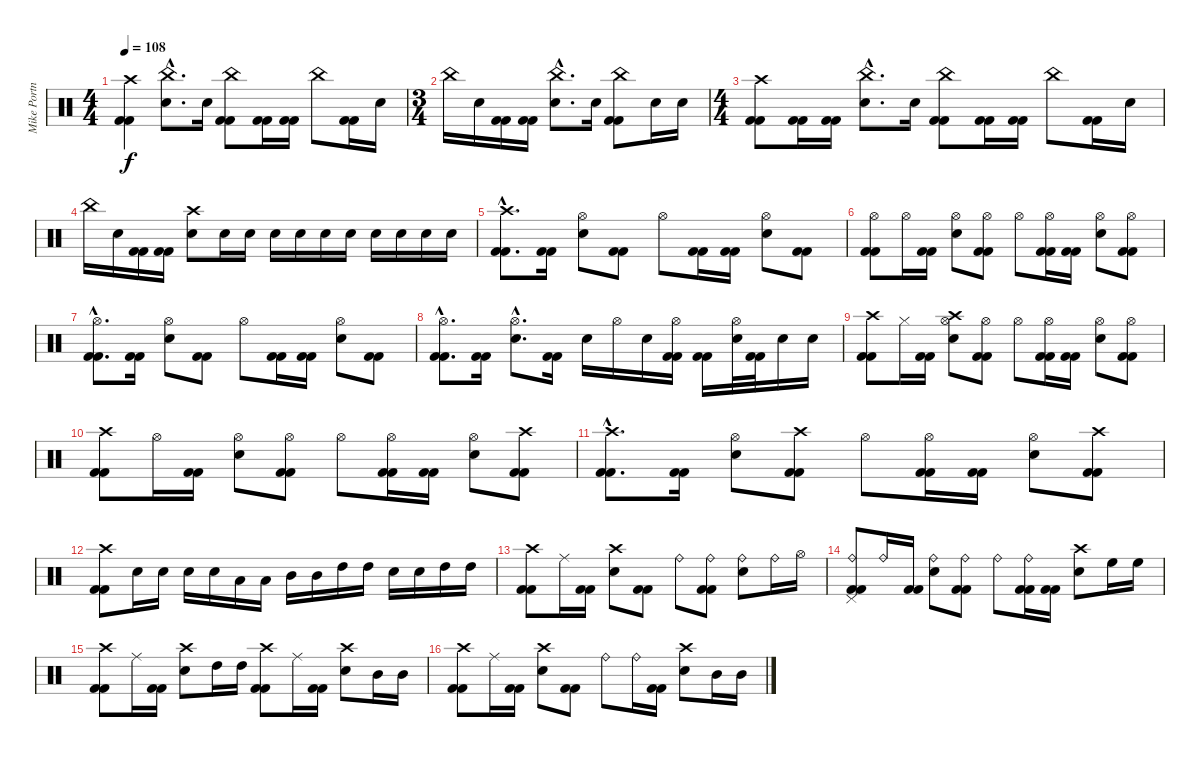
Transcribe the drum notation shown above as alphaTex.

\track ("Mike Portnoy - Drum" "Mike Portn") {instrument percussion}
\staff {score}
\articulation defaults
\ts (4 4)
\tempo 108
\clef neutral
\ks c
("Crash high (hit)" "Kick (hit) 2" "Kick (hit) 2").4{dy f} ("China (hit)"{hac} "Snare (hit) 2"{hac}).8{d} "Snare (hit) 2".16 ("China (hit)" "Kick (hit) 2" "Kick (hit) 2").8 ("Kick (hit) 2" "Kick (hit) 2").16 ("Kick (hit) 2" "Kick (hit) 2").16 "China (hit)".8 ("Kick (hit) 2" "Kick (hit) 2").16 "Snare (hit) 2".16 |
\ts (3 4)
"China (hit)".16 "Snare (hit) 2".16 ("Kick (hit) 2" "Kick (hit) 2").16 ("Kick (hit) 2" "Kick (hit) 2").16 ("China (hit)"{hac} "Snare (hit) 2"{hac}).8{d} "Snare (hit) 2".16 ("China (hit)" "Kick (hit) 2" "Kick (hit) 2").8 "Snare (hit) 2".16 "Snare (hit) 2".16 |
\ts (4 4)
("Crash high (hit)" "Kick (hit) 2" "Kick (hit) 2").8 ("Kick (hit) 2" "Kick (hit) 2").16 ("Kick (hit) 2" "Kick (hit) 2").16 ("China (hit)"{hac} "Snare (hit) 2"{hac}).8{d} "Snare (hit) 2".16 ("China (hit)" "Kick (hit) 2" "Kick (hit) 2").8 ("Kick (hit) 2" "Kick (hit) 2").16 ("Kick (hit) 2" "Kick (hit) 2").16 "China (hit)".8 ("Kick (hit) 2" "Kick (hit) 2").16 "Snare (hit) 2".16 |
"China (hit)".16 "Snare (hit) 2".16 ("Kick (hit) 2" "Kick (hit) 2").16 ("Kick (hit) 2" "Kick (hit) 2").16 ("Crash high (hit)" "Snare (hit) 2").8 "Snare (hit) 2".16 "Snare (hit) 2".16 "Snare (hit) 2".16 "Snare (hit) 2".16 "Snare (hit) 2".16 "Snare (hit) 2".16 "Snare (hit) 2".16 "Snare (hit) 2".16 "Snare (hit) 2".16 "Snare (hit) 2".16 |
("Crash high (hit)"{hac} "Kick (hit) 2"{hac} "Kick (hit) 2"{hac}).8{d} ("Kick (hit) 2" "Kick (hit) 2").16 ("Hi-Hat (open)" "Snare (hit) 2").8 ("Kick (hit) 2" "Kick (hit) 2").8 "Hi-Hat (open)".8 ("Kick (hit) 2" "Kick (hit) 2").16 ("Kick (hit) 2" "Kick (hit) 2").16 ("Hi-Hat (open)" "Snare (hit) 2").8 ("Kick (hit) 2" "Kick (hit) 2").8 |
("Hi-Hat (open)" "Kick (hit) 2" "Kick (hit) 2").8 "Hi-Hat (open)".16 ("Kick (hit) 2" "Kick (hit) 2").16 ("Hi-Hat (open)" "Snare (hit) 2").8 ("Hi-Hat (open)" "Kick (hit) 2" "Kick (hit) 2").8 "Hi-Hat (open)".8 ("Hi-Hat (open)" "Kick (hit) 2" "Kick (hit) 2").16 ("Kick (hit) 2" "Kick (hit) 2").16 ("Hi-Hat (open)" "Snare (hit) 2").8 ("Hi-Hat (open)" "Kick (hit) 2" "Kick (hit) 2").8 |
("Hi-Hat (open)"{hac} "Kick (hit) 2"{hac} "Kick (hit) 2"{hac}).8{d} ("Kick (hit) 2" "Kick (hit) 2").16 ("Hi-Hat (open)" "Snare (hit) 2").8 ("Kick (hit) 2" "Kick (hit) 2").8 "Hi-Hat (open)".8 ("Kick (hit) 2" "Kick (hit) 2").16 ("Kick (hit) 2" "Kick (hit) 2").16 ("Hi-Hat (open)" "Snare (hit) 2").8 ("Kick (hit) 2" "Kick (hit) 2").8 |
("Hi-Hat (open)"{hac} "Kick (hit) 2"{hac} "Kick (hit) 2"{hac}).8{d} ("Kick (hit) 2" "Kick (hit) 2").16 ("Hi-Hat (open)"{hac} "Snare (hit) 2"{hac}).8{d} ("Kick (hit) 2" "Kick (hit) 2").16 "Snare (hit) 2".16 "Hi-Hat (open)".16 "Snare (hit) 2".16 ("Hi-Hat (open)" "Kick (hit) 2" "Kick (hit) 2").16 ("Kick (hit) 2" "Kick (hit) 2").16 ("Hi-Hat (open)" "Snare (hit) 2").32 ("Kick (hit) 2" "Kick (hit) 2").32 "Snare (hit) 2".16 "Snare (hit) 2".16 |
("Crash high (hit)" "Kick (hit) 2" "Kick (hit) 2").8 "Hi-Hat (closed)".16 ("Kick (hit) 2" "Kick (hit) 2").16 ("Crash high (hit)" "Hi-Hat (open)" "Snare (hit) 2").8 ("Hi-Hat (open)" "Kick (hit) 2" "Kick (hit) 2").8 "Hi-Hat (open)".8 ("Hi-Hat (open)" "Kick (hit) 2" "Kick (hit) 2").16 ("Kick (hit) 2" "Kick (hit) 2").16 ("Hi-Hat (open)" "Snare (hit) 2").8 ("Hi-Hat (open)" "Kick (hit) 2" "Kick (hit) 2").8 |
("Crash high (hit)" "Kick (hit) 2" "Kick (hit) 2").8 "Hi-Hat (open)".16 ("Kick (hit) 2" "Kick (hit) 2").16 ("Hi-Hat (open)" "Snare (hit) 2").8 ("Hi-Hat (open)" "Kick (hit) 2" "Kick (hit) 2").8 "Hi-Hat (open)".8 ("Hi-Hat (open)" "Kick (hit) 2" "Kick (hit) 2").16 ("Kick (hit) 2" "Kick (hit) 2").16 ("Hi-Hat (open)" "Snare (hit) 2").8 ("Crash high (hit)" "Kick (hit) 2" "Kick (hit) 2").8 |
("Crash high (hit)"{hac} "Kick (hit) 2"{hac} "Kick (hit) 2"{hac}).8{d} ("Kick (hit) 2" "Kick (hit) 2").16 ("Hi-Hat (open)" "Snare (hit) 2").8 ("Crash high (hit)" "Kick (hit) 2" "Kick (hit) 2").8 "Hi-Hat (open)".8 ("Hi-Hat (open)" "Kick (hit) 2" "Kick (hit) 2").16 ("Kick (hit) 2" "Kick (hit) 2").16 ("Hi-Hat (open)" "Snare (hit) 2").8 ("Crash high (hit)" "Kick (hit) 2" "Kick (hit) 2").8 |
("Crash high (hit)" "Kick (hit) 2" "Kick (hit) 2").8 "Snare (hit) 2".16 "Snare (hit) 2".16 "Snare (hit) 2".16 "Snare (hit) 2".16 "Low Tom (hit)".16 "Low Tom (hit)".16 "Mid Tom (hit)".16 "Mid Tom (hit)".16 "High Tom (hit)".16 "High Tom (hit)".16 "Snare (hit) 2".16 "Snare (hit) 2".16 "High Tom (hit)".16 "High Tom (hit)".16 |
("Crash high (hit)" "Kick (hit) 2" "Kick (hit) 2").8 "Ride (middle)".16 ("Kick (hit) 2" "Kick (hit) 2").16 ("Crash high (hit)" "Snare (hit) 2").8 ("Kick (hit) 2" "Kick (hit) 2").8 "Ride (bell)".8 ("Ride (bell)" "Kick (hit) 2" "Kick (hit) 2").8 ("Ride (bell)" "Snare (hit) 2").8 "Ride (bell)".16 "Hi-Hat (open)".16 |
("Ride (bell)" "Pedal Hi-Hat (hit)" "Kick (hit) 2" "Kick (hit) 2").8 "Ride (bell)".16 ("Kick (hit) 2" "Kick (hit) 2").16 ("Ride (bell)" "Snare (hit) 2").8 ("Ride (bell)" "Kick (hit) 2" "Kick (hit) 2").8 "Ride (bell)".8 ("Ride (bell)" "Kick (hit) 2" "Kick (hit) 2").16 ("Kick (hit) 2" "Kick (hit) 2").16 ("Crash high (hit)" "Snare (hit) 2").8 "High Floor Tom (hit)".16 "High Floor Tom (hit)".16 |
("Crash high (hit)" "Kick (hit) 2" "Kick (hit) 2").8 "Ride (middle)".16 ("Kick (hit) 2" "Kick (hit) 2").16 ("Crash high (hit)" "Snare (hit) 2").8 "High Tom (hit)".16 "High Tom (hit)".16 ("Crash high (hit)" "Kick (hit) 2" "Kick (hit) 2").8 "Ride (middle)".16 ("Kick (hit) 2" "Kick (hit) 2").16 ("Crash high (hit)" "Snare (hit) 2").8 "Mid Tom (hit)".16 "Mid Tom (hit)".16 |
("Crash high (hit)" "Kick (hit) 2" "Kick (hit) 2").8 "Ride (middle)".16 ("Kick (hit) 2" "Kick (hit) 2").16 ("Crash high (hit)" "Snare (hit) 2").8 ("Kick (hit) 2" "Kick (hit) 2").8 "Ride (bell)".8 "Ride (bell)".16 ("Kick (hit) 2" "Kick (hit) 2").16 ("Crash high (hit)" "Snare (hit) 2").8 "Mid Tom (hit)".16 "Mid Tom (hit)".16
